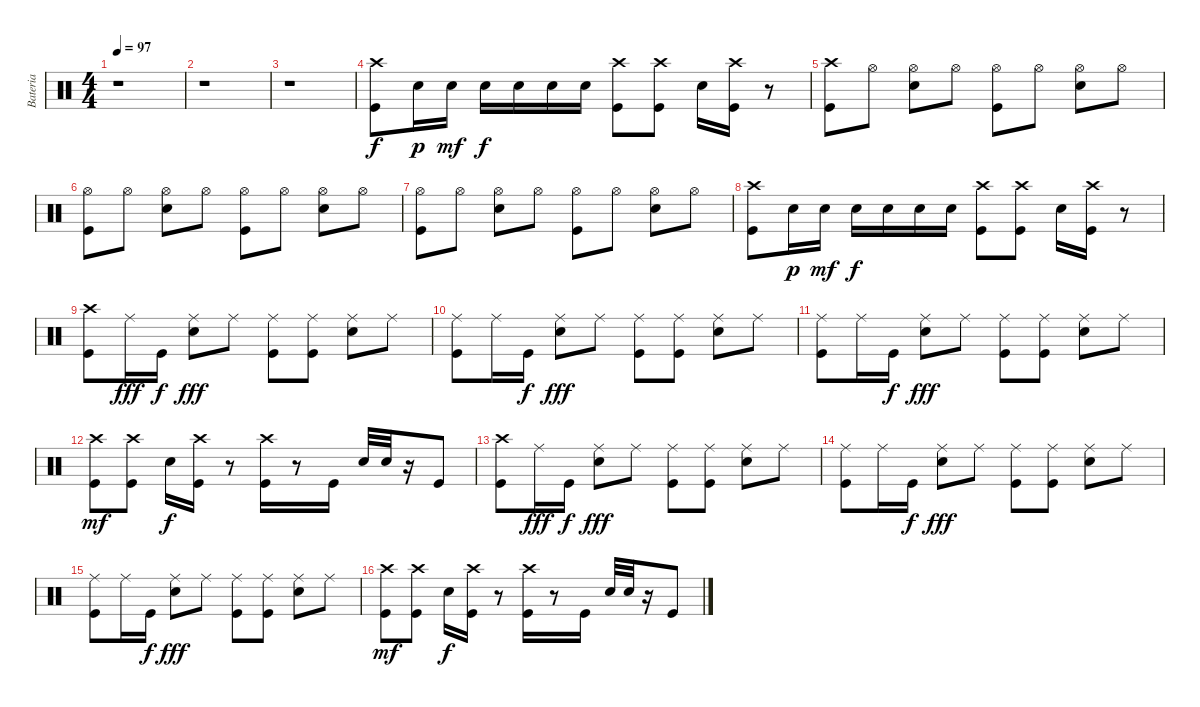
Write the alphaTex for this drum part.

\track ("Bateria" "Bateria") {instrument percussion}
\staff {score}
\articulation defaults
\ts (4 4)
\tempo 97
\clef neutral
\ks c
r.1{dy f} |
r.1 |
r.1 |
("Crash high (hit)" "Kick (hit)").8 "Electric Snare (hit)".16{dy p} "Electric Snare (hit)".16{dy mf} "Electric Snare (hit)".16{dy f} "Electric Snare (hit)".16 "Electric Snare (hit)".16 "Electric Snare (hit)".16 ("Crash high (hit)" "Kick (hit)").8 ("Crash high (hit)" "Kick (hit)").8 "Electric Snare (hit)".16 ("Crash high (hit)" "Kick (hit)").16 r.8 |
("Crash high (hit)" "Kick (hit)").8 "Hi-Hat (open)".8 ("Electric Snare (hit)" "Hi-Hat (open)").8 "Hi-Hat (open)".8 ("Kick (hit)" "Hi-Hat (open)").8 "Hi-Hat (open)".8 ("Electric Snare (hit)" "Hi-Hat (open)").8 "Hi-Hat (open)".8 |
("Kick (hit)" "Hi-Hat (open)").8 "Hi-Hat (open)".8 ("Electric Snare (hit)" "Hi-Hat (open)").8 "Hi-Hat (open)".8 ("Kick (hit)" "Hi-Hat (open)").8 "Hi-Hat (open)".8 ("Electric Snare (hit)" "Hi-Hat (open)").8 "Hi-Hat (open)".8 |
("Kick (hit)" "Hi-Hat (open)").8 "Hi-Hat (open)".8 ("Electric Snare (hit)" "Hi-Hat (open)").8 "Hi-Hat (open)".8 ("Kick (hit)" "Hi-Hat (open)").8 "Hi-Hat (open)".8 ("Electric Snare (hit)" "Hi-Hat (open)").8 "Hi-Hat (open)".8 |
("Crash high (hit)" "Kick (hit)").8 "Electric Snare (hit)".16{dy p} "Electric Snare (hit)".16{dy mf} "Electric Snare (hit)".16{dy f} "Electric Snare (hit)".16 "Electric Snare (hit)".16 "Electric Snare (hit)".16 ("Crash high (hit)" "Kick (hit)").8 ("Crash high (hit)" "Kick (hit)").8 "Electric Snare (hit)".16 ("Crash high (hit)" "Kick (hit)").16 r.8 |
("Crash high (hit)" "Kick (hit)").8 "Ride (middle)".16{dy fff} "Kick (hit)".16{dy f} ("Electric Snare (hit)" "Ride (middle)").8{dy fff} "Ride (middle)".8 ("Kick (hit)" "Ride (middle)").8 ("Kick (hit)" "Ride (middle)").8 ("Electric Snare (hit)" "Ride (middle)").8 "Ride (middle)".8 |
("Kick (hit)" "Ride (middle)").8 "Ride (middle)".16 "Kick (hit)".16{dy f} ("Electric Snare (hit)" "Ride (middle)").8{dy fff} "Ride (middle)".8 ("Kick (hit)" "Ride (middle)").8 ("Kick (hit)" "Ride (middle)").8 ("Electric Snare (hit)" "Ride (middle)").8 "Ride (middle)".8 |
("Kick (hit)" "Ride (middle)").8 "Ride (middle)".16 "Kick (hit)".16{dy f} ("Electric Snare (hit)" "Ride (middle)").8{dy fff} "Ride (middle)".8 ("Kick (hit)" "Ride (middle)").8 ("Kick (hit)" "Ride (middle)").8 ("Electric Snare (hit)" "Ride (middle)").8 "Ride (middle)".8 |
("Crash high (hit)" "Kick (hit)").8{dy mf} ("Crash high (hit)" "Kick (hit)").8 "Electric Snare (hit)".16{dy f} ("Crash high (hit)" "Kick (hit)").16 r.8 ("Crash high (hit)" "Kick (hit)").16 r.8 "Kick (hit)".16 "Electric Snare (hit)".32 "Electric Snare (hit)".32 r.16 "Kick (hit)".8 |
("Crash high (hit)" "Kick (hit)").8 "Ride (middle)".16{dy fff} "Kick (hit)".16{dy f} ("Electric Snare (hit)" "Ride (middle)").8{dy fff} "Ride (middle)".8 ("Kick (hit)" "Ride (middle)").8 ("Kick (hit)" "Ride (middle)").8 ("Electric Snare (hit)" "Ride (middle)").8 "Ride (middle)".8 |
("Kick (hit)" "Ride (middle)").8 "Ride (middle)".16 "Kick (hit)".16{dy f} ("Electric Snare (hit)" "Ride (middle)").8{dy fff} "Ride (middle)".8 ("Kick (hit)" "Ride (middle)").8 ("Kick (hit)" "Ride (middle)").8 ("Electric Snare (hit)" "Ride (middle)").8 "Ride (middle)".8 |
("Kick (hit)" "Ride (middle)").8 "Ride (middle)".16 "Kick (hit)".16{dy f} ("Electric Snare (hit)" "Ride (middle)").8{dy fff} "Ride (middle)".8 ("Kick (hit)" "Ride (middle)").8 ("Kick (hit)" "Ride (middle)").8 ("Electric Snare (hit)" "Ride (middle)").8 "Ride (middle)".8 |
("Crash high (hit)" "Kick (hit)").8{dy mf} ("Crash high (hit)" "Kick (hit)").8 "Electric Snare (hit)".16{dy f} ("Crash high (hit)" "Kick (hit)").16 r.8 ("Crash high (hit)" "Kick (hit)").16 r.8 "Kick (hit)".16 "Electric Snare (hit)".32 "Electric Snare (hit)".32 r.16 "Kick (hit)".8
